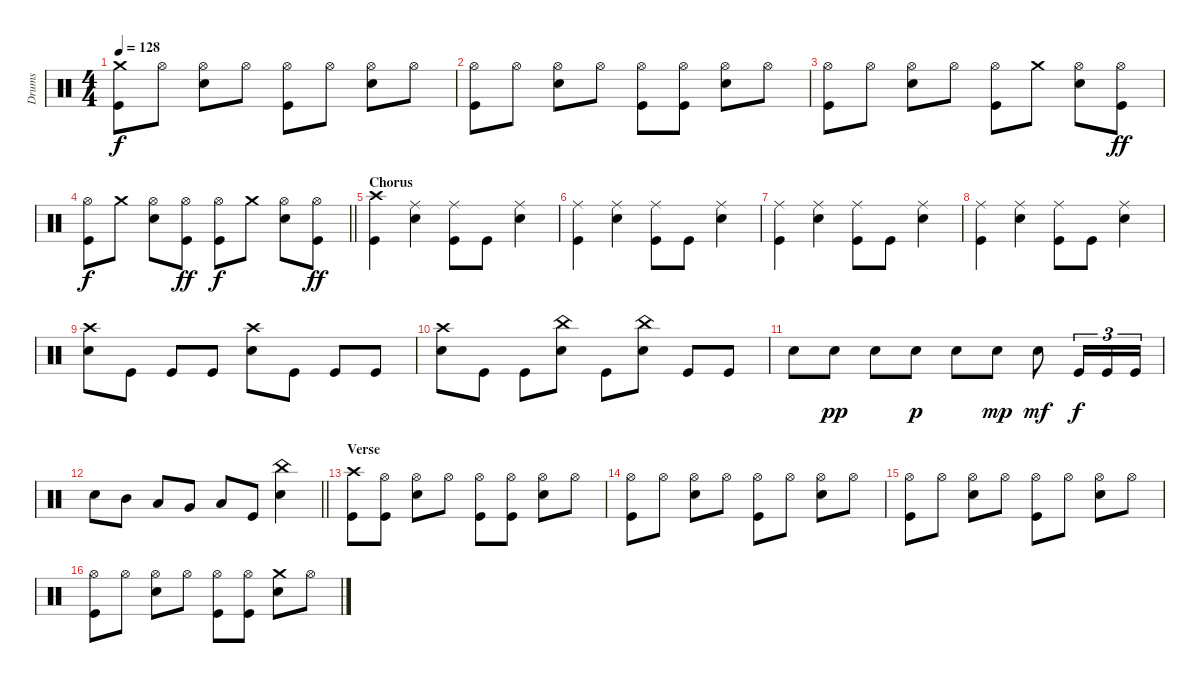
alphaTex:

\track ("Drums" "Drums") {instrument percussion}
\staff {score}
\articulation defaults
\ts (4 4)
\tempo 128
\clef neutral
\ks c
("Crash medium (hit)" "Kick (hit)").8{dy f} "Hi-Hat (open)".8 ("Hi-Hat (open)" "Snare (hit) 2").8 "Hi-Hat (open)".8 ("Hi-Hat (open)" "Kick (hit)").8 "Hi-Hat (open)".8 ("Hi-Hat (open)" "Snare (hit) 2").8 "Hi-Hat (open)".8 |
("Hi-Hat (open)" "Kick (hit)").8 "Hi-Hat (open)".8 ("Hi-Hat (open)" "Snare (hit) 2").8 "Hi-Hat (open)".8 ("Hi-Hat (open)" "Kick (hit)").8 ("Hi-Hat (open)" "Kick (hit)").8 ("Hi-Hat (open)" "Snare (hit) 2").8 "Hi-Hat (open)".8 |
("Hi-Hat (open)" "Kick (hit)").8 "Hi-Hat (open)".8 ("Hi-Hat (open)" "Snare (hit) 2").8 "Hi-Hat (open)".8 ("Hi-Hat (open)" "Kick (hit)").8 "Crash medium (hit)".8 ("Hi-Hat (open)" "Snare (hit) 2").8 ("Hi-Hat (open)" "Kick (hit)").8{dy ff} |
\barLineRight lightlight
("Hi-Hat (open)" "Kick (hit)").8{dy f} "Crash medium (hit)".8 ("Hi-Hat (open)" "Snare (hit) 2").8 ("Hi-Hat (open)" "Kick (hit)").8{dy ff} ("Hi-Hat (open)" "Kick (hit)").8{dy f} "Crash medium (hit)".8 ("Hi-Hat (open)" "Snare (hit) 2").8 ("Hi-Hat (open)" "Kick (hit)").8{dy ff} |
\section ("" "Chorus")
("Crash high (hit)" "Kick (hit)").4 ("Ride (middle)" "Snare (hit) 2").4 ("Ride (middle)" "Kick (hit)").8 "Kick (hit)".8 ("Ride (middle)" "Snare (hit) 2").4 |
("Ride (middle)" "Kick (hit)").4 ("Ride (middle)" "Snare (hit) 2").4 ("Ride (middle)" "Kick (hit)").8 "Kick (hit)".8 ("Ride (middle)" "Snare (hit) 2").4 |
("Ride (middle)" "Kick (hit)").4 ("Ride (middle)" "Snare (hit) 2").4 ("Ride (middle)" "Kick (hit)").8 "Kick (hit)".8 ("Ride (middle)" "Snare (hit) 2").4 |
("Ride (middle)" "Kick (hit)").4 ("Ride (middle)" "Snare (hit) 2").4 ("Ride (middle)" "Kick (hit)").8 "Kick (hit)".8 ("Ride (middle)" "Snare (hit) 2").4 |
("Crash high (hit)" "Snare (hit) 2").8 "Kick (hit)".8 "Kick (hit)".8 "Kick (hit)".8 ("Crash high (hit)" "Snare (hit) 2").8 "Kick (hit)".8 "Kick (hit)".8 "Kick (hit)".8 |
("Crash high (hit)" "Snare (hit) 2").8 "Kick (hit)".8 "Kick (hit)".8 ("China (hit)" "Snare (hit) 2").8 "Kick (hit)".8 ("China (hit)" "Snare (hit) 2").8 "Kick (hit)".8 "Kick (hit)".8 |
"Snare (hit) 2".8 "Snare (hit) 2".8{dy pp} "Snare (hit) 2".8 "Snare (hit) 2".8{dy p} "Snare (hit) 2".8 "Snare (hit) 2".8{dy mp} "Snare (hit) 2".8{dy mf} "Kick (hit)".16{tu (3 2) dy f} "Kick (hit)".16{tu (3 2)} "Kick (hit)".16{tu (3 2)} |
\barLineRight lightlight "Snare (hit) 2".8 "Mid Tom (hit)".8 "Low Tom (hit)".8 "Very Low Tom (hit)".8 "Low Floor Tom (hit)".8 "Kick (hit)".8
("China (hit)" "Snare (hit) 2").4 |
\section ("" "Verse")
("Crash high (hit)" "Kick (hit)").8 ("Hi-Hat (open)" "Kick (hit)").8 ("Hi-Hat (open)" "Snare (hit) 2").8 "Hi-Hat (open)".8 ("Hi-Hat (open)" "Kick (hit)").8 ("Hi-Hat (open)" "Kick (hit)").8 ("Hi-Hat (open)" "Snare (hit) 2").8 "Hi-Hat (open)".8 |
("Hi-Hat (open)" "Kick (hit)").8 "Hi-Hat (open)".8 ("Hi-Hat (open)" "Snare (hit) 2").8 "Hi-Hat (open)".8 ("Hi-Hat (open)" "Kick (hit)").8 "Hi-Hat (open)".8 ("Hi-Hat (open)" "Snare (hit) 2").8 "Hi-Hat (open)".8 |
("Hi-Hat (open)" "Kick (hit)").8 "Hi-Hat (open)".8 ("Hi-Hat (open)" "Snare (hit) 2").8 "Hi-Hat (open)".8 ("Hi-Hat (open)" "Kick (hit)").8 "Hi-Hat (open)".8 ("Hi-Hat (open)" "Snare (hit) 2").8 "Hi-Hat (open)".8 |
("Hi-Hat (open)" "Kick (hit)").8 "Hi-Hat (open)".8 ("Hi-Hat (open)" "Snare (hit) 2").8 "Hi-Hat (open)".8 ("Hi-Hat (open)" "Kick (hit)").8 ("Hi-Hat (open)" "Kick (hit)").8 ("Crash medium (hit)" "Snare (hit) 2").8 "Hi-Hat (open)".8
